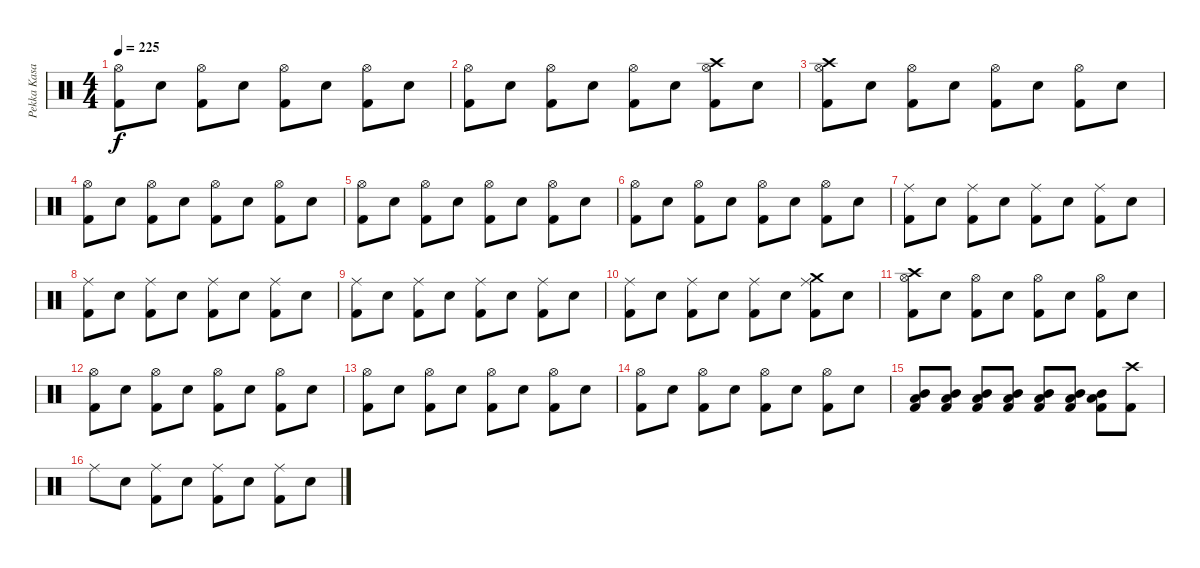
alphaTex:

\track ("Pekka Kasari" "Pekka Kasa") {instrument percussion}
\staff {score}
\articulation defaults
\ts (4 4)
\tempo 225
\clef neutral
\ks c
("Hi-Hat (open)" "Kick (hit) 2").8{dy f} "Snare (hit) 2".8 ("Hi-Hat (open)" "Kick (hit) 2").8 "Snare (hit) 2".8 ("Hi-Hat (open)" "Kick (hit) 2").8 "Snare (hit) 2".8 ("Hi-Hat (open)" "Kick (hit) 2").8 "Snare (hit) 2".8 |
("Hi-Hat (open)" "Kick (hit) 2").8 "Snare (hit) 2".8 ("Hi-Hat (open)" "Kick (hit) 2").8 "Snare (hit) 2".8 ("Hi-Hat (open)" "Kick (hit) 2").8 "Snare (hit) 2".8 ("Hi-Hat (open)" "Kick (hit) 2" "Crash high (hit)").8 "Snare (hit) 2".8 |
("Crash high (hit)" "Hi-Hat (open)" "Kick (hit) 2").8 "Snare (hit) 2".8 ("Hi-Hat (open)" "Kick (hit) 2").8 "Snare (hit) 2".8 ("Hi-Hat (open)" "Kick (hit) 2").8 "Snare (hit) 2".8 ("Hi-Hat (open)" "Kick (hit) 2").8 "Snare (hit) 2".8 |
("Hi-Hat (open)" "Kick (hit) 2").8 "Snare (hit) 2".8 ("Hi-Hat (open)" "Kick (hit) 2").8 "Snare (hit) 2".8 ("Hi-Hat (open)" "Kick (hit) 2").8 "Snare (hit) 2".8 ("Hi-Hat (open)" "Kick (hit) 2").8 "Snare (hit) 2".8 |
("Hi-Hat (open)" "Kick (hit) 2").8 "Snare (hit) 2".8 ("Hi-Hat (open)" "Kick (hit) 2").8 "Snare (hit) 2".8 ("Hi-Hat (open)" "Kick (hit) 2").8 "Snare (hit) 2".8 ("Hi-Hat (open)" "Kick (hit) 2").8 "Snare (hit) 2".8 |
("Hi-Hat (open)" "Kick (hit) 2").8 "Snare (hit) 2".8 ("Hi-Hat (open)" "Kick (hit) 2").8 "Snare (hit) 2".8 ("Hi-Hat (open)" "Kick (hit) 2").8 "Snare (hit) 2".8 ("Hi-Hat (open)" "Kick (hit) 2").8 "Snare (hit) 2".8 |
("Ride (middle)" "Kick (hit) 2").8 "Snare (hit) 2".8 ("Ride (middle)" "Kick (hit) 2").8 "Snare (hit) 2".8 ("Ride (middle)" "Kick (hit) 2").8 "Snare (hit) 2".8 ("Ride (middle)" "Kick (hit) 2").8 "Snare (hit) 2".8 |
("Ride (middle)" "Kick (hit) 2").8 "Snare (hit) 2".8 ("Ride (middle)" "Kick (hit) 2").8 "Snare (hit) 2".8 ("Ride (middle)" "Kick (hit) 2").8 "Snare (hit) 2".8 ("Ride (middle)" "Kick (hit) 2").8 "Snare (hit) 2".8 |
("Ride (middle)" "Kick (hit) 2").8 "Snare (hit) 2".8 ("Ride (middle)" "Kick (hit) 2").8 "Snare (hit) 2".8 ("Ride (middle)" "Kick (hit) 2").8 "Snare (hit) 2".8 ("Ride (middle)" "Kick (hit) 2").8 "Snare (hit) 2".8 |
("Ride (middle)" "Kick (hit) 2").8 "Snare (hit) 2".8 ("Ride (middle)" "Kick (hit) 2").8 "Snare (hit) 2".8 ("Ride (middle)" "Kick (hit) 2").8 "Snare (hit) 2".8 ("Ride (middle)" "Kick (hit) 2" "Crash medium (hit)").8 "Snare (hit) 2".8 |
("Crash high (hit)" "Hi-Hat (open)" "Kick (hit) 2").8 "Snare (hit) 2".8 ("Hi-Hat (open)" "Kick (hit) 2").8 "Snare (hit) 2".8 ("Hi-Hat (open)" "Kick (hit) 2").8 "Snare (hit) 2".8 ("Hi-Hat (open)" "Kick (hit) 2").8 "Snare (hit) 2".8 |
("Hi-Hat (open)" "Kick (hit) 2").8 "Snare (hit) 2".8 ("Hi-Hat (open)" "Kick (hit) 2").8 "Snare (hit) 2".8 ("Hi-Hat (open)" "Kick (hit) 2").8 "Snare (hit) 2".8 ("Hi-Hat (open)" "Kick (hit) 2").8 "Snare (hit) 2".8 |
("Hi-Hat (open)" "Kick (hit) 2").8 "Snare (hit) 2".8 ("Hi-Hat (open)" "Kick (hit) 2").8 "Snare (hit) 2".8 ("Hi-Hat (open)" "Kick (hit) 2").8 "Snare (hit) 2".8 ("Kick (hit) 2" "Hi-Hat (open)").8 "Snare (hit) 2".8 |
("Kick (hit) 2" "Hi-Hat (open)").8 "Snare (hit) 2".8 ("Hi-Hat (open)" "Kick (hit) 2").8 "Snare (hit) 2".8 ("Hi-Hat (open)" "Kick (hit) 2").8 "Snare (hit) 2".8 ("Hi-Hat (open)" "Kick (hit) 2").8 "Snare (hit) 2".8 |
("Low Floor Tom (hit)" "Mid Tom (hit)" "Kick (hit) 2").8 ("Low Floor Tom (hit)" "Mid Tom (hit)" "Kick (hit) 2").8 ("Mid Tom (hit)" "Kick (hit) 2" "Low Floor Tom (hit)").8 ("Low Floor Tom (hit)" "Mid Tom (hit)" "Kick (hit) 2").8 ("Mid Tom (hit)" "Kick (hit) 2" "Low Floor Tom (hit)").8 ("Mid Tom (hit)" "Kick (hit) 2" "Low Floor Tom (hit)").8 ("Low Floor Tom (hit)" "Mid Tom (hit)" "Kick (hit) 2").8 ("Crash high (hit)" "Kick (hit) 2").8 |
"Ride (middle)".8 "Snare (hit) 2".8 ("Ride (middle)" "Kick (hit) 2").8 "Snare (hit) 2".8 ("Ride (middle)" "Kick (hit) 2").8 "Snare (hit) 2".8 ("Kick (hit) 2" "Ride (middle)").8 "Snare (hit) 2".8
